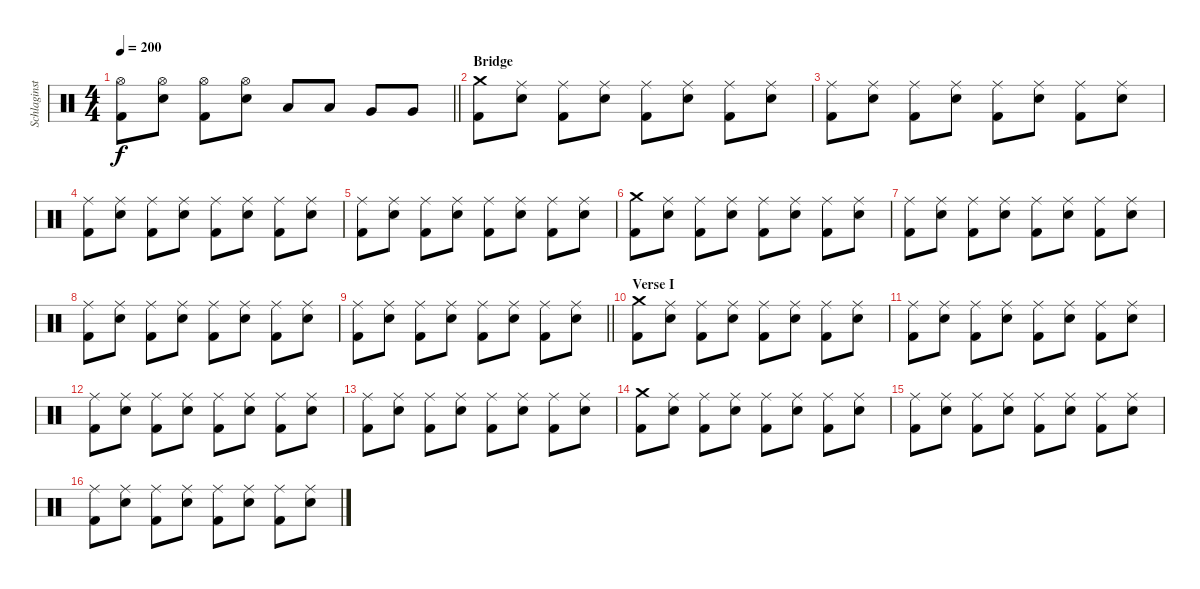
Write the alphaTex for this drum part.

\track ("Schlaginstrumente - Auswahl" "Schlaginst") {instrument percussion}
\staff {score}
\articulation defaults
\ts (4 4)
\tempo 200
\clef neutral
\barLineRight lightlight
\ks c
("Hi-Hat (open)" "Kick (hit) 2").8{dy f} ("Hi-Hat (open)" "Electric Snare (hit)").8 ("Hi-Hat (open)" "Kick (hit) 2").8 ("Hi-Hat (open)" "Electric Snare (hit)").8 "Low Tom (hit)".8 "Low Tom (hit)".8 "Very Low Tom (hit)".8 "Very Low Tom (hit)".8 |
\section ("" "Bridge")
("Crash medium (hit)" "Kick (hit) 2").8 ("Ride (middle)" "Electric Snare (hit)").8 ("Ride (middle)" "Kick (hit) 2").8 ("Ride (middle)" "Electric Snare (hit)").8 ("Ride (middle)" "Kick (hit) 2").8 ("Ride (middle)" "Electric Snare (hit)").8 ("Ride (middle)" "Kick (hit) 2").8 ("Ride (middle)" "Electric Snare (hit)").8 |
("Ride (middle)" "Kick (hit) 2").8 ("Ride (middle)" "Electric Snare (hit)").8 ("Ride (middle)" "Kick (hit) 2").8 ("Ride (middle)" "Electric Snare (hit)").8 ("Ride (middle)" "Kick (hit) 2").8 ("Ride (middle)" "Electric Snare (hit)").8 ("Ride (middle)" "Kick (hit) 2").8 ("Ride (middle)" "Electric Snare (hit)").8 |
("Ride (middle)" "Kick (hit) 2").8 ("Ride (middle)" "Electric Snare (hit)").8 ("Ride (middle)" "Kick (hit) 2").8 ("Ride (middle)" "Electric Snare (hit)").8 ("Ride (middle)" "Kick (hit) 2").8 ("Ride (middle)" "Electric Snare (hit)").8 ("Ride (middle)" "Kick (hit) 2").8 ("Ride (middle)" "Electric Snare (hit)").8 |
("Ride (middle)" "Kick (hit) 2").8 ("Ride (middle)" "Electric Snare (hit)").8 ("Ride (middle)" "Kick (hit) 2").8 ("Ride (middle)" "Electric Snare (hit)").8 ("Ride (middle)" "Kick (hit) 2").8 ("Ride (middle)" "Electric Snare (hit)").8 ("Ride (middle)" "Kick (hit) 2").8 ("Ride (middle)" "Electric Snare (hit)").8 |
("Crash medium (hit)" "Kick (hit) 2").8 ("Ride (middle)" "Electric Snare (hit)").8 ("Ride (middle)" "Kick (hit) 2").8 ("Ride (middle)" "Electric Snare (hit)").8 ("Ride (middle)" "Kick (hit) 2").8 ("Ride (middle)" "Electric Snare (hit)").8 ("Ride (middle)" "Kick (hit) 2").8 ("Ride (middle)" "Electric Snare (hit)").8 |
("Ride (middle)" "Kick (hit) 2").8 ("Ride (middle)" "Electric Snare (hit)").8 ("Ride (middle)" "Kick (hit) 2").8 ("Ride (middle)" "Electric Snare (hit)").8 ("Ride (middle)" "Kick (hit) 2").8 ("Ride (middle)" "Electric Snare (hit)").8 ("Ride (middle)" "Kick (hit) 2").8 ("Ride (middle)" "Electric Snare (hit)").8 |
("Ride (middle)" "Kick (hit) 2").8 ("Ride (middle)" "Electric Snare (hit)").8 ("Ride (middle)" "Kick (hit) 2").8 ("Ride (middle)" "Electric Snare (hit)").8 ("Ride (middle)" "Kick (hit) 2").8 ("Ride (middle)" "Electric Snare (hit)").8 ("Ride (middle)" "Kick (hit) 2").8 ("Ride (middle)" "Electric Snare (hit)").8 |
\barLineRight lightlight
("Ride (middle)" "Kick (hit) 2").8 ("Ride (middle)" "Electric Snare (hit)").8 ("Ride (middle)" "Kick (hit) 2").8 ("Ride (middle)" "Electric Snare (hit)").8 ("Ride (middle)" "Kick (hit) 2").8 ("Ride (middle)" "Electric Snare (hit)").8 ("Ride (middle)" "Kick (hit) 2").8 ("Ride (middle)" "Electric Snare (hit)").8 |
\section ("" "Verse I")
("Crash medium (hit)" "Kick (hit) 2").8 ("Ride (middle)" "Electric Snare (hit)").8 ("Ride (middle)" "Kick (hit) 2").8 ("Ride (middle)" "Electric Snare (hit)").8 ("Ride (middle)" "Kick (hit) 2").8 ("Ride (middle)" "Electric Snare (hit)").8 ("Ride (middle)" "Kick (hit) 2").8 ("Ride (middle)" "Electric Snare (hit)").8 |
("Ride (middle)" "Kick (hit) 2").8 ("Ride (middle)" "Electric Snare (hit)").8 ("Ride (middle)" "Kick (hit) 2").8 ("Ride (middle)" "Electric Snare (hit)").8 ("Ride (middle)" "Kick (hit) 2").8 ("Ride (middle)" "Electric Snare (hit)").8 ("Ride (middle)" "Kick (hit) 2").8 ("Ride (middle)" "Electric Snare (hit)").8 |
("Ride (middle)" "Kick (hit) 2").8 ("Ride (middle)" "Electric Snare (hit)").8 ("Ride (middle)" "Kick (hit) 2").8 ("Ride (middle)" "Electric Snare (hit)").8 ("Ride (middle)" "Kick (hit) 2").8 ("Ride (middle)" "Electric Snare (hit)").8 ("Ride (middle)" "Kick (hit) 2").8 ("Ride (middle)" "Electric Snare (hit)").8 |
("Ride (middle)" "Kick (hit) 2").8 ("Ride (middle)" "Electric Snare (hit)").8 ("Ride (middle)" "Kick (hit) 2").8 ("Ride (middle)" "Electric Snare (hit)").8 ("Ride (middle)" "Kick (hit) 2").8 ("Ride (middle)" "Electric Snare (hit)").8 ("Ride (middle)" "Kick (hit) 2").8 ("Ride (middle)" "Electric Snare (hit)").8 |
("Crash medium (hit)" "Kick (hit) 2").8 ("Ride (middle)" "Electric Snare (hit)").8 ("Ride (middle)" "Kick (hit) 2").8 ("Ride (middle)" "Electric Snare (hit)").8 ("Ride (middle)" "Kick (hit) 2").8 ("Ride (middle)" "Electric Snare (hit)").8 ("Ride (middle)" "Kick (hit) 2").8 ("Ride (middle)" "Electric Snare (hit)").8 |
("Ride (middle)" "Kick (hit) 2").8 ("Ride (middle)" "Electric Snare (hit)").8 ("Ride (middle)" "Kick (hit) 2").8 ("Ride (middle)" "Electric Snare (hit)").8 ("Ride (middle)" "Kick (hit) 2").8 ("Ride (middle)" "Electric Snare (hit)").8 ("Ride (middle)" "Kick (hit) 2").8 ("Ride (middle)" "Electric Snare (hit)").8 |
("Ride (middle)" "Kick (hit) 2").8 ("Ride (middle)" "Electric Snare (hit)").8 ("Ride (middle)" "Kick (hit) 2").8 ("Ride (middle)" "Electric Snare (hit)").8 ("Ride (middle)" "Kick (hit) 2").8 ("Ride (middle)" "Electric Snare (hit)").8 ("Ride (middle)" "Kick (hit) 2").8 ("Ride (middle)" "Electric Snare (hit)").8
